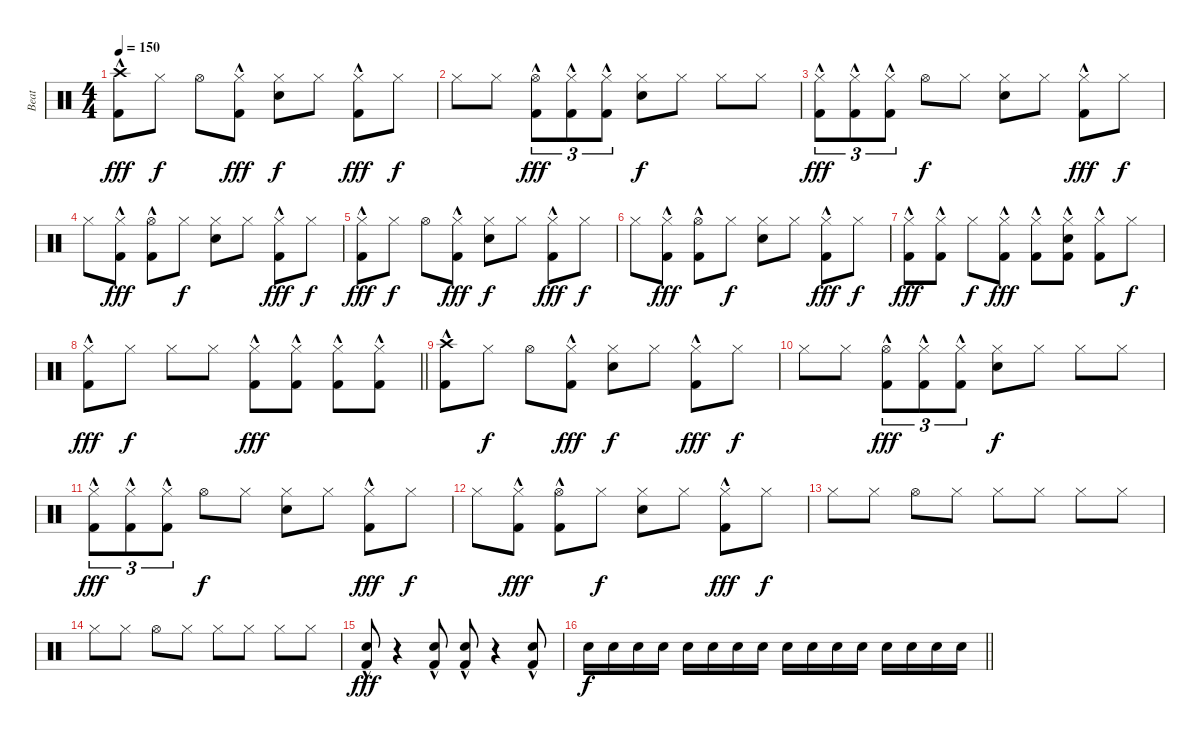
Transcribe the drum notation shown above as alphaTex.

\track ("Beat" "Beat") {instrument percussion}
\staff {score}
\articulation defaults
\ts (4 4)
\tempo 150
\clef neutral
\ks c
("Crash high (hit)" "Kick (hit) 2"{hac}).8{dy fff} "Hi-Hat (closed)".8{dy f} "Hi-Hat (open)".8 ("Hi-Hat (closed)" "Kick (hit) 2"{hac}).8{dy fff} ("Hi-Hat (closed)" "Hand Clap (hit)").8{dy f} "Hi-Hat (closed)".8 ("Hi-Hat (closed)" "Kick (hit) 2"{hac}).8{dy fff} "Hi-Hat (closed)".8{dy f} |
"Hi-Hat (closed)".8 "Hi-Hat (closed)".8 ("Hi-Hat (open)" "Kick (hit) 2"{hac}).8{tu (3 2) dy fff} ("Hi-Hat (closed)" "Kick (hit) 2"{hac}).8{tu (3 2)} ("Hi-Hat (closed)" "Kick (hit) 2"{hac}).8{tu (3 2)} ("Hi-Hat (closed)" "Hand Clap (hit)").8{dy f} "Hi-Hat (closed)".8 "Hi-Hat (closed)".8 "Hi-Hat (closed)".8 |
("Hi-Hat (closed)" "Kick (hit) 2"{hac}).8{tu (3 2) dy fff} ("Hi-Hat (closed)" "Kick (hit) 2"{hac}).8{tu (3 2)} ("Hi-Hat (closed)" "Kick (hit) 2"{hac}).8{tu (3 2)} "Hi-Hat (open)".8{dy f} "Hi-Hat (closed)".8 ("Hi-Hat (closed)" "Hand Clap (hit)").8 "Hi-Hat (closed)".8 ("Hi-Hat (closed)" "Kick (hit) 2"{hac}).8{dy fff} "Hi-Hat (closed)".8{dy f} |
"Hi-Hat (closed)".8 ("Hi-Hat (closed)" "Kick (hit) 2"{hac}).8{dy fff} ("Hi-Hat (open)" "Kick (hit) 2"{hac}).8 "Hi-Hat (closed)".8{dy f} ("Hi-Hat (closed)" "Hand Clap (hit)").8 "Hi-Hat (closed)".8 ("Hi-Hat (closed)" "Kick (hit) 2"{hac}).8{dy fff} "Hi-Hat (closed)".8{dy f} |
("Hi-Hat (closed)" "Kick (hit) 2"{hac}).8{dy fff} "Hi-Hat (closed)".8{dy f} "Hi-Hat (open)".8 ("Hi-Hat (closed)" "Kick (hit) 2"{hac}).8{dy fff} ("Hi-Hat (closed)" "Hand Clap (hit)").8{dy f} "Hi-Hat (closed)".8 ("Hi-Hat (closed)" "Kick (hit) 2"{hac}).8{dy fff} "Hi-Hat (closed)".8{dy f} |
"Hi-Hat (closed)".8 ("Hi-Hat (closed)" "Kick (hit) 2"{hac}).8{dy fff} ("Hi-Hat (open)" "Kick (hit) 2"{hac}).8 "Hi-Hat (closed)".8{dy f} ("Hi-Hat (closed)" "Hand Clap (hit)").8 "Hi-Hat (closed)".8 ("Hi-Hat (closed)" "Kick (hit) 2"{hac}).8{dy fff} "Hi-Hat (closed)".8{dy f} |
("Hi-Hat (closed)" "Kick (hit) 2"{hac}).8{dy fff} ("Hi-Hat (closed)" "Kick (hit) 2"{hac}).8 "Hi-Hat (closed)".8{dy f} ("Hi-Hat (closed)" "Kick (hit) 2"{hac}).8{dy fff} ("Hi-Hat (closed)" "Kick (hit) 2"{hac}).8 ("Hi-Hat (closed)" "Hand Clap (hit)" "Kick (hit) 2"{hac}).8 ("Hi-Hat (closed)" "Kick (hit) 2"{hac}).8 "Hi-Hat (closed)".8{dy f} |
\barLineRight lightlight
("Hi-Hat (closed)" "Kick (hit) 2"{hac}).8{dy fff} "Hi-Hat (closed)".8{dy f} "Hi-Hat (closed)".8 "Hi-Hat (closed)".8 ("Hi-Hat (closed)" "Kick (hit) 2"{hac}).8{dy fff} ("Hi-Hat (closed)" "Kick (hit) 2"{hac}).8 ("Hi-Hat (closed)" "Kick (hit) 2"{hac}).8 ("Hi-Hat (closed)" "Kick (hit) 2"{hac}).8 |
("Crash high (hit)" "Kick (hit) 2"{hac}).8 "Hi-Hat (closed)".8{dy f} "Hi-Hat (open)".8 ("Hi-Hat (closed)" "Kick (hit) 2"{hac}).8{dy fff} ("Hi-Hat (closed)" "Hand Clap (hit)").8{dy f} "Hi-Hat (closed)".8 ("Hi-Hat (closed)" "Kick (hit) 2"{hac}).8{dy fff} "Hi-Hat (closed)".8{dy f} |
"Hi-Hat (closed)".8 "Hi-Hat (closed)".8 ("Hi-Hat (open)" "Kick (hit) 2"{hac}).8{tu (3 2) dy fff} ("Hi-Hat (closed)" "Kick (hit) 2"{hac}).8{tu (3 2)} ("Hi-Hat (closed)" "Kick (hit) 2"{hac}).8{tu (3 2)} ("Hi-Hat (closed)" "Hand Clap (hit)").8{dy f} "Hi-Hat (closed)".8 "Hi-Hat (closed)".8 "Hi-Hat (closed)".8 |
("Hi-Hat (closed)" "Kick (hit) 2"{hac}).8{tu (3 2) dy fff} ("Hi-Hat (closed)" "Kick (hit) 2"{hac}).8{tu (3 2)} ("Hi-Hat (closed)" "Kick (hit) 2"{hac}).8{tu (3 2)} "Hi-Hat (open)".8{dy f} "Hi-Hat (closed)".8 ("Hi-Hat (closed)" "Hand Clap (hit)").8 "Hi-Hat (closed)".8 ("Hi-Hat (closed)" "Kick (hit) 2"{hac}).8{dy fff} "Hi-Hat (closed)".8{dy f} |
"Hi-Hat (closed)".8 ("Hi-Hat (closed)" "Kick (hit) 2"{hac}).8{dy fff} ("Hi-Hat (open)" "Kick (hit) 2"{hac}).8 "Hi-Hat (closed)".8{dy f} ("Hi-Hat (closed)" "Hand Clap (hit)").8 "Hi-Hat (closed)".8 ("Hi-Hat (closed)" "Kick (hit) 2"{hac}).8{dy fff} "Hi-Hat (closed)".8{dy f} |
"Hi-Hat (closed)".8 "Hi-Hat (closed)".8 "Hi-Hat (open)".8 "Hi-Hat (closed)".8 "Hi-Hat (closed)".8 "Hi-Hat (closed)".8 "Hi-Hat (closed)".8 "Hi-Hat (closed)".8 |
"Hi-Hat (closed)".8 "Hi-Hat (closed)".8 "Hi-Hat (open)".8 "Hi-Hat (closed)".8 "Hi-Hat (closed)".8 "Hi-Hat (closed)".8 "Hi-Hat (closed)".8 "Hi-Hat (closed)".8 |
("Snare (hit) 2" "Kick (hit) 2"{hac}).8{dy fff} r.4 ("Snare (hit) 2" "Kick (hit) 2"{hac}).8 ("Snare (hit) 2" "Kick (hit) 2"{hac}).8 r.4 ("Snare (hit) 2" "Kick (hit) 2"{hac}).8 |
\barLineRight lightlight "Snare (hit) 2".16{dy f} "Snare (hit) 2".16 "Snare (hit) 2".16 "Snare (hit) 2".16 "Snare (hit) 2".16 "Snare (hit) 2".16 "Snare (hit) 2".16 "Snare (hit) 2".16 "Snare (hit) 2".16 "Snare (hit) 2".16 "Snare (hit) 2".16 "Snare (hit) 2".16 "Snare (hit) 2".16 "Snare (hit) 2".16 "Snare (hit) 2".16 "Snare (hit) 2".16
